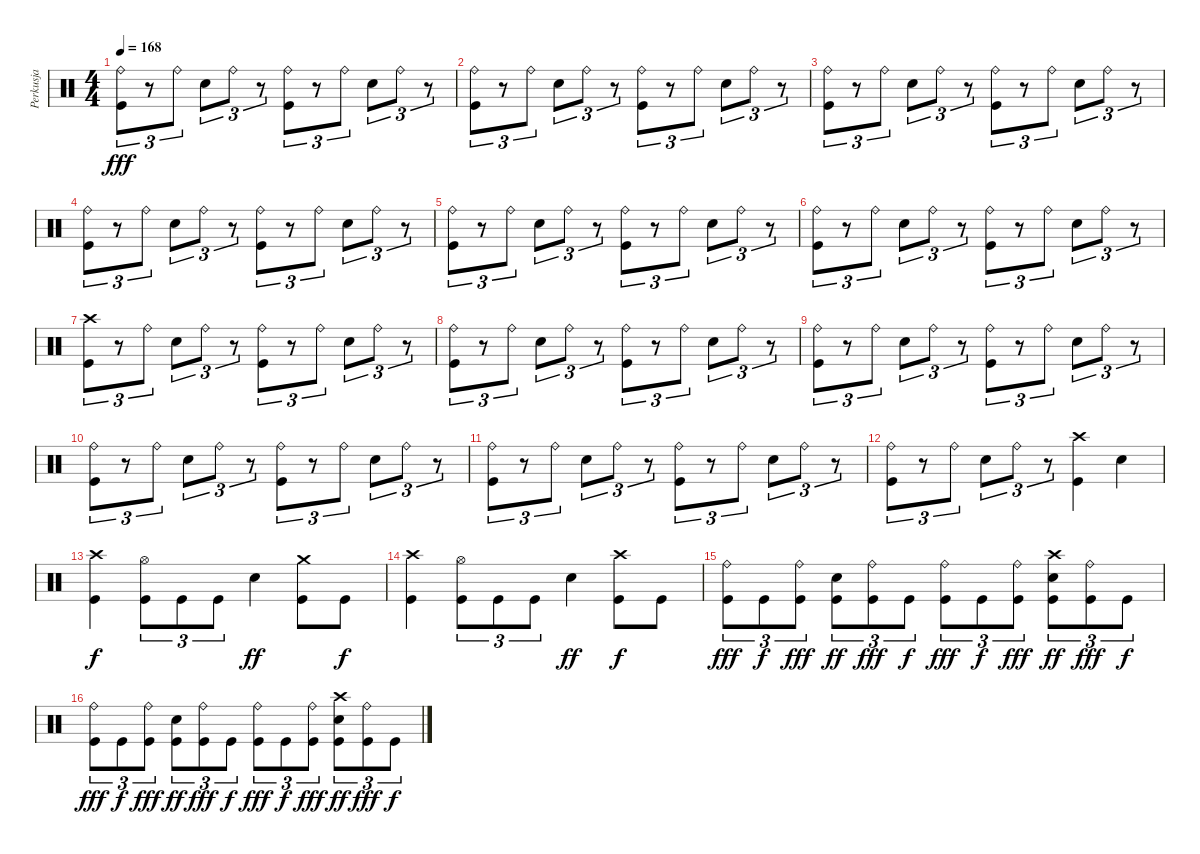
\track ("Perkusja" "Perkusja") {instrument percussion}
\staff {score}
\articulation defaults
\ts (4 4)
\tempo 168
\clef neutral
\ks c
("Ride (bell)" "Kick (hit)").8{tu (3 2) dy fff} r.8{tu (3 2)} "Ride (bell)".8{tu (3 2)} "Snare (hit) 2".8{tu (3 2)} "Ride (bell)".8{tu (3 2)} r.8{tu (3 2)} ("Ride (bell)" "Kick (hit)").8{tu (3 2)} r.8{tu (3 2)} "Ride (bell)".8{tu (3 2)} "Snare (hit) 2".8{tu (3 2)} "Ride (bell)".8{tu (3 2)} r.8{tu (3 2)} |
("Ride (bell)" "Kick (hit)").8{tu (3 2)} r.8{tu (3 2)} "Ride (bell)".8{tu (3 2)} "Snare (hit) 2".8{tu (3 2)} "Ride (bell)".8{tu (3 2)} r.8{tu (3 2)} ("Ride (bell)" "Kick (hit)").8{tu (3 2)} r.8{tu (3 2)} "Ride (bell)".8{tu (3 2)} "Snare (hit) 2".8{tu (3 2)} "Ride (bell)".8{tu (3 2)} r.8{tu (3 2)} |
("Ride (bell)" "Kick (hit)").8{tu (3 2)} r.8{tu (3 2)} "Ride (bell)".8{tu (3 2)} "Snare (hit) 2".8{tu (3 2)} "Ride (bell)".8{tu (3 2)} r.8{tu (3 2)} ("Ride (bell)" "Kick (hit)").8{tu (3 2)} r.8{tu (3 2)} "Ride (bell)".8{tu (3 2)} "Snare (hit) 2".8{tu (3 2)} "Ride (bell)".8{tu (3 2)} r.8{tu (3 2)} |
("Ride (bell)" "Kick (hit)").8{tu (3 2)} r.8{tu (3 2)} "Ride (bell)".8{tu (3 2)} "Snare (hit) 2".8{tu (3 2)} "Ride (bell)".8{tu (3 2)} r.8{tu (3 2)} ("Ride (bell)" "Kick (hit)").8{tu (3 2)} r.8{tu (3 2)} "Ride (bell)".8{tu (3 2)} "Snare (hit) 2".8{tu (3 2)} "Ride (bell)".8{tu (3 2)} r.8{tu (3 2)} |
("Ride (bell)" "Kick (hit)").8{tu (3 2)} r.8{tu (3 2)} "Ride (bell)".8{tu (3 2)} "Snare (hit) 2".8{tu (3 2)} "Ride (bell)".8{tu (3 2)} r.8{tu (3 2)} ("Ride (bell)" "Kick (hit)").8{tu (3 2)} r.8{tu (3 2)} "Ride (bell)".8{tu (3 2)} "Snare (hit) 2".8{tu (3 2)} "Ride (bell)".8{tu (3 2)} r.8{tu (3 2)} |
("Ride (bell)" "Kick (hit)").8{tu (3 2)} r.8{tu (3 2)} "Ride (bell)".8{tu (3 2)} "Snare (hit) 2".8{tu (3 2)} "Ride (bell)".8{tu (3 2)} r.8{tu (3 2)} ("Ride (bell)" "Kick (hit)").8{tu (3 2)} r.8{tu (3 2)} "Ride (bell)".8{tu (3 2)} "Snare (hit) 2".8{tu (3 2)} "Ride (bell)".8{tu (3 2)} r.8{tu (3 2)} |
("Crash high (hit)" "Kick (hit)").8{tu (3 2)} r.8{tu (3 2)} "Ride (bell)".8{tu (3 2)} "Snare (hit) 2".8{tu (3 2)} "Ride (bell)".8{tu (3 2)} r.8{tu (3 2)} ("Ride (bell)" "Kick (hit)").8{tu (3 2)} r.8{tu (3 2)} "Ride (bell)".8{tu (3 2)} "Snare (hit) 2".8{tu (3 2)} "Ride (bell)".8{tu (3 2)} r.8{tu (3 2)} |
("Ride (bell)" "Kick (hit)").8{tu (3 2)} r.8{tu (3 2)} "Ride (bell)".8{tu (3 2)} "Snare (hit) 2".8{tu (3 2)} "Ride (bell)".8{tu (3 2)} r.8{tu (3 2)} ("Ride (bell)" "Kick (hit)").8{tu (3 2)} r.8{tu (3 2)} "Ride (bell)".8{tu (3 2)} "Snare (hit) 2".8{tu (3 2)} "Ride (bell)".8{tu (3 2)} r.8{tu (3 2)} |
("Ride (bell)" "Kick (hit)").8{tu (3 2)} r.8{tu (3 2)} "Ride (bell)".8{tu (3 2)} "Snare (hit) 2".8{tu (3 2)} "Ride (bell)".8{tu (3 2)} r.8{tu (3 2)} ("Ride (bell)" "Kick (hit)").8{tu (3 2)} r.8{tu (3 2)} "Ride (bell)".8{tu (3 2)} "Snare (hit) 2".8{tu (3 2)} "Ride (bell)".8{tu (3 2)} r.8{tu (3 2)} |
("Ride (bell)" "Kick (hit)").8{tu (3 2)} r.8{tu (3 2)} "Ride (bell)".8{tu (3 2)} "Snare (hit) 2".8{tu (3 2)} "Ride (bell)".8{tu (3 2)} r.8{tu (3 2)} ("Ride (bell)" "Kick (hit)").8{tu (3 2)} r.8{tu (3 2)} "Ride (bell)".8{tu (3 2)} "Snare (hit) 2".8{tu (3 2)} "Ride (bell)".8{tu (3 2)} r.8{tu (3 2)} |
("Ride (bell)" "Kick (hit)").8{tu (3 2)} r.8{tu (3 2)} "Ride (bell)".8{tu (3 2)} "Snare (hit) 2".8{tu (3 2)} "Ride (bell)".8{tu (3 2)} r.8{tu (3 2)} ("Ride (bell)" "Kick (hit)").8{tu (3 2)} r.8{tu (3 2)} "Ride (bell)".8{tu (3 2)} "Snare (hit) 2".8{tu (3 2)} "Ride (bell)".8{tu (3 2)} r.8{tu (3 2)} |
("Ride (bell)" "Kick (hit)").8{tu (3 2)} r.8{tu (3 2)} "Ride (bell)".8{tu (3 2)} "Snare (hit) 2".8{tu (3 2)} "Ride (bell)".8{tu (3 2)} r.8{tu (3 2)} ("Crash high (hit)" "Kick (hit)").4 "Snare (hit) 2".4 |
("Crash high (hit)" "Kick (hit)").4{dy f} ("Hi-Hat (open)" "Kick (hit)").8{tu (3 2)} "Kick (hit)".8{tu (3 2)} "Kick (hit)".8{tu (3 2)} "Snare (hit) 2".4{dy ff} ("Crash medium (hit)" "Kick (hit)").8 "Kick (hit)".8{dy f} |
("Crash high (hit)" "Kick (hit)").4 ("Hi-Hat (open)" "Kick (hit)").8{tu (3 2)} "Kick (hit)".8{tu (3 2)} "Kick (hit)".8{tu (3 2)} "Snare (hit) 2".4{dy ff} ("Crash high (hit)" "Kick (hit)").8{dy f} "Kick (hit)".8 |
("Ride (bell)" "Kick (hit)").8{tu (3 2) dy fff} "Kick (hit)".8{tu (3 2) dy f} ("Ride (bell)" "Kick (hit)").8{tu (3 2) dy fff} ("Snare (hit) 2" "Kick (hit)").8{tu (3 2) dy ff} ("Ride (bell)" "Kick (hit)").8{tu (3 2) dy fff} "Kick (hit)".8{tu (3 2) dy f} ("Ride (bell)" "Kick (hit)").8{tu (3 2) dy fff} "Kick (hit)".8{tu (3 2) dy f} ("Ride (bell)" "Kick (hit)").8{tu (3 2) dy fff} ("Crash high (hit)" "Snare (hit) 2" "Kick (hit)").8{tu (3 2) dy ff} ("Ride (bell)" "Kick (hit)").8{tu (3 2) dy fff} "Kick (hit)".8{tu (3 2) dy f} |
("Ride (bell)" "Kick (hit)").8{tu (3 2) dy fff} "Kick (hit)".8{tu (3 2) dy f} ("Ride (bell)" "Kick (hit)").8{tu (3 2) dy fff} ("Snare (hit) 2" "Kick (hit)").8{tu (3 2) dy ff} ("Ride (bell)" "Kick (hit)").8{tu (3 2) dy fff} "Kick (hit)".8{tu (3 2) dy f} ("Ride (bell)" "Kick (hit)").8{tu (3 2) dy fff} "Kick (hit)".8{tu (3 2) dy f} ("Ride (bell)" "Kick (hit)").8{tu (3 2) dy fff} ("Crash high (hit)" "Snare (hit) 2" "Kick (hit)").8{tu (3 2) dy ff} ("Ride (bell)" "Kick (hit)").8{tu (3 2) dy fff} "Kick (hit)".8{tu (3 2) dy f}
